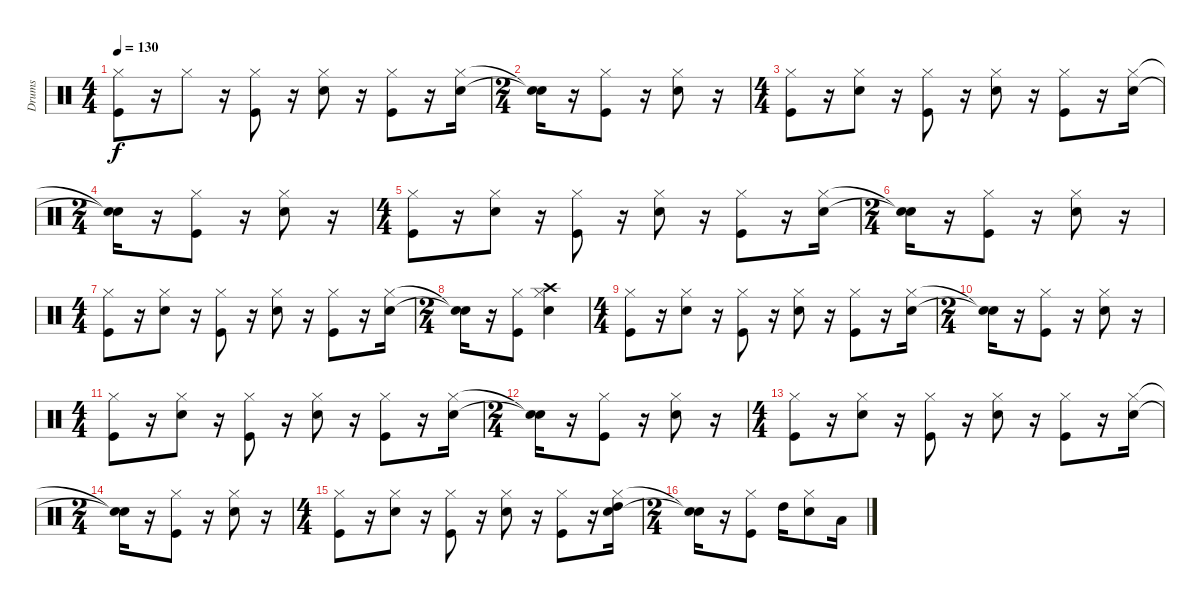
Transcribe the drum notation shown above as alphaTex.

\track ("Drums" "Drums") {instrument percussion}
\staff {score}
\articulation defaults
\ts (4 4)
\tempo 130
\clef neutral
\ks c
("Hi-Hat (closed)" "Kick (hit)").8{dy f} r.16 "Hi-Hat (closed)".8 r.16 ("Hi-Hat (closed)" "Kick (hit)").8 r.16 ("Hi-Hat (closed)" "Snare (hit) 2").8 r.16 ("Hi-Hat (closed)" "Kick (hit)").8 r.16 ("Hi-Hat (closed)" "Snare (hit) 2").16 |
\ts (2 4)
("Snare (hit)"{t} "Snare (hit)"{t}).16 r.16 ("Hi-Hat (closed)" "Kick (hit)").8 r.16 ("Hi-Hat (closed)" "Snare (hit) 2").8 r.16 |
\ts (4 4)
("Hi-Hat (closed)" "Kick (hit)").8 r.16 ("Hi-Hat (closed)" "Snare (hit) 2").8 r.16 ("Hi-Hat (closed)" "Kick (hit)").8 r.16 ("Hi-Hat (closed)" "Snare (hit) 2").8 r.16 ("Hi-Hat (closed)" "Kick (hit)").8 r.16 ("Hi-Hat (closed)" "Snare (hit) 2").16 |
\ts (2 4)
("Snare (hit)"{t} "Snare (hit)"{t}).16 r.16 ("Hi-Hat (closed)" "Kick (hit)").8 r.16 ("Hi-Hat (closed)" "Snare (hit) 2").8 r.16 |
\ts (4 4)
("Hi-Hat (closed)" "Kick (hit)").8 r.16 ("Hi-Hat (closed)" "Snare (hit) 2").8 r.16 ("Hi-Hat (closed)" "Kick (hit)").8 r.16 ("Hi-Hat (closed)" "Snare (hit) 2").8 r.16 ("Hi-Hat (closed)" "Kick (hit)").8 r.16 ("Hi-Hat (closed)" "Snare (hit) 2").16 |
\ts (2 4)
("Snare (hit)"{t} "Snare (hit)"{t}).16 r.16 ("Hi-Hat (closed)" "Kick (hit)").8 r.16 ("Hi-Hat (closed)" "Snare (hit) 2").8 r.16 |
\ts (4 4)
("Hi-Hat (closed)" "Kick (hit)").8 r.16 ("Hi-Hat (closed)" "Snare (hit) 2").8 r.16 ("Hi-Hat (closed)" "Kick (hit)").8 r.16 ("Hi-Hat (closed)" "Snare (hit) 2").8 r.16 ("Hi-Hat (closed)" "Kick (hit)").8 r.16 ("Hi-Hat (closed)" "Snare (hit) 2").16 |
\ts (2 4)
("Snare (hit)"{t} "Snare (hit)"{t}).16 r.16 ("Hi-Hat (closed)" "Kick (hit)").8 ("Hi-Hat (closed)" "Snare (hit) 2" "Crash high (hit)").4 |
\ts (4 4)
("Hi-Hat (closed)" "Kick (hit)").8 r.16 ("Hi-Hat (closed)" "Snare (hit) 2").8 r.16 ("Hi-Hat (closed)" "Kick (hit)").8 r.16 ("Hi-Hat (closed)" "Snare (hit) 2").8 r.16 ("Hi-Hat (closed)" "Kick (hit)").8 r.16 ("Hi-Hat (closed)" "Snare (hit) 2").16 |
\ts (2 4)
("Snare (hit)"{t} "Snare (hit)"{t}).16 r.16 ("Hi-Hat (closed)" "Kick (hit)").8 r.16 ("Hi-Hat (closed)" "Snare (hit) 2").8 r.16 |
\ts (4 4)
("Hi-Hat (closed)" "Kick (hit)").8 r.16 ("Hi-Hat (closed)" "Snare (hit) 2").8 r.16 ("Hi-Hat (closed)" "Kick (hit)").8 r.16 ("Hi-Hat (closed)" "Snare (hit) 2").8 r.16 ("Hi-Hat (closed)" "Kick (hit)").8 r.16 ("Hi-Hat (closed)" "Snare (hit) 2").16 |
\ts (2 4)
("Snare (hit)"{t} "Snare (hit)"{t}).16 r.16 ("Hi-Hat (closed)" "Kick (hit)").8 r.16 ("Hi-Hat (closed)" "Snare (hit) 2").8 r.16 |
\ts (4 4)
("Hi-Hat (closed)" "Kick (hit)").8 r.16 ("Hi-Hat (closed)" "Snare (hit) 2").8 r.16 ("Hi-Hat (closed)" "Kick (hit)").8 r.16 ("Hi-Hat (closed)" "Snare (hit) 2").8 r.16 ("Hi-Hat (closed)" "Kick (hit)").8 r.16 ("Hi-Hat (closed)" "Snare (hit) 2").16 |
\ts (2 4)
("Snare (hit)"{t} "Snare (hit)"{t}).16 r.16 ("Hi-Hat (closed)" "Kick (hit)").8 r.16 ("Hi-Hat (closed)" "Snare (hit) 2").8 r.16 |
\ts (4 4)
("Hi-Hat (closed)" "Kick (hit)").8 r.16 ("Hi-Hat (closed)" "Snare (hit) 2").8 r.16 ("Hi-Hat (closed)" "Kick (hit)").8 r.16 ("Hi-Hat (closed)" "Snare (hit) 2").8 r.16 ("Hi-Hat (closed)" "Kick (hit)").8 r.16 ("Hi-Hat (closed)" "Snare (hit) 2" "High Tom (hit)").16 |
\ts (2 4)
("Snare (hit)"{t} "Snare (hit)"{t}).16 r.16 ("Hi-Hat (closed)" "Kick (hit)").8 "High Tom (hit)".16 ("Hi-Hat (closed)" "Snare (hit) 2").8 "Low Tom (hit)".16
